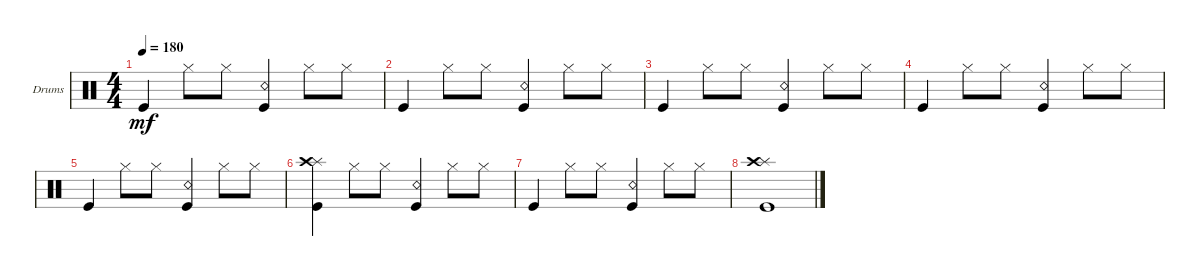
\defaultSystemsLayout 4
\bracketExtendMode groupsimilarinstruments
\firstSystemTrackNameOrientation horizontal
\otherSystemsTrackNameOrientation horizontal
\track ("Drumkit" "Drums") {instrument percussion}
\staff {score}
\articulation defaults
\ts (4 4)
\tempo 180
\clef neutral
\scale
0.333333
\ks c "Kick (hit)".4{dy mf} "Hi-Hat (closed)".8 "Hi-Hat (closed)".8
("Snare (rim shot)" "Kick (hit)").4 "Hi-Hat (closed)".8 "Hi-Hat (closed)".8 |
\scale
0.333333 "Kick (hit)".4 "Hi-Hat (closed)".8 "Hi-Hat (closed)".8 ("Snare (rim shot)" "Kick (hit)").4 "Hi-Hat (closed)".8 "Hi-Hat (closed)".8 |
\scale
0.333333 "Kick (hit)".4 "Hi-Hat (closed)".8 "Hi-Hat (closed)".8 ("Snare (rim shot)" "Kick (hit)").4 "Hi-Hat (closed)".8 "Hi-Hat (closed)".8 |
\scale
0.333333 "Kick (hit)".4 "Hi-Hat (closed)".8 "Hi-Hat (closed)".8 ("Snare (rim shot)" "Kick (hit)").4 "Hi-Hat (closed)".8 "Hi-Hat (closed)".8 |
\scale
0.333333 "Kick (hit)".4 "Hi-Hat (closed)".8 "Hi-Hat (closed)".8 ("Snare (rim shot)" "Kick (hit)").4 "Hi-Hat (closed)".8 "Hi-Hat (closed)".8 |
\scale
0.333333 ("Kick (hit)" "Splash (hit)" "Crash high (hit)").4 "Hi-Hat (closed)".8 "Hi-Hat (closed)".8 ("Snare (rim shot)" "Kick (hit)").4 "Hi-Hat (closed)".8 "Hi-Hat (closed)".8 |
"Kick (hit)".4 "Hi-Hat (closed)".8 "Hi-Hat (closed)".8 ("Snare (rim shot)" "Kick (hit)").4 "Hi-Hat (closed)".8 "Hi-Hat (closed)".8 |
("Kick (hit)" "Splash (hit)" "Crash high (hit)").1
